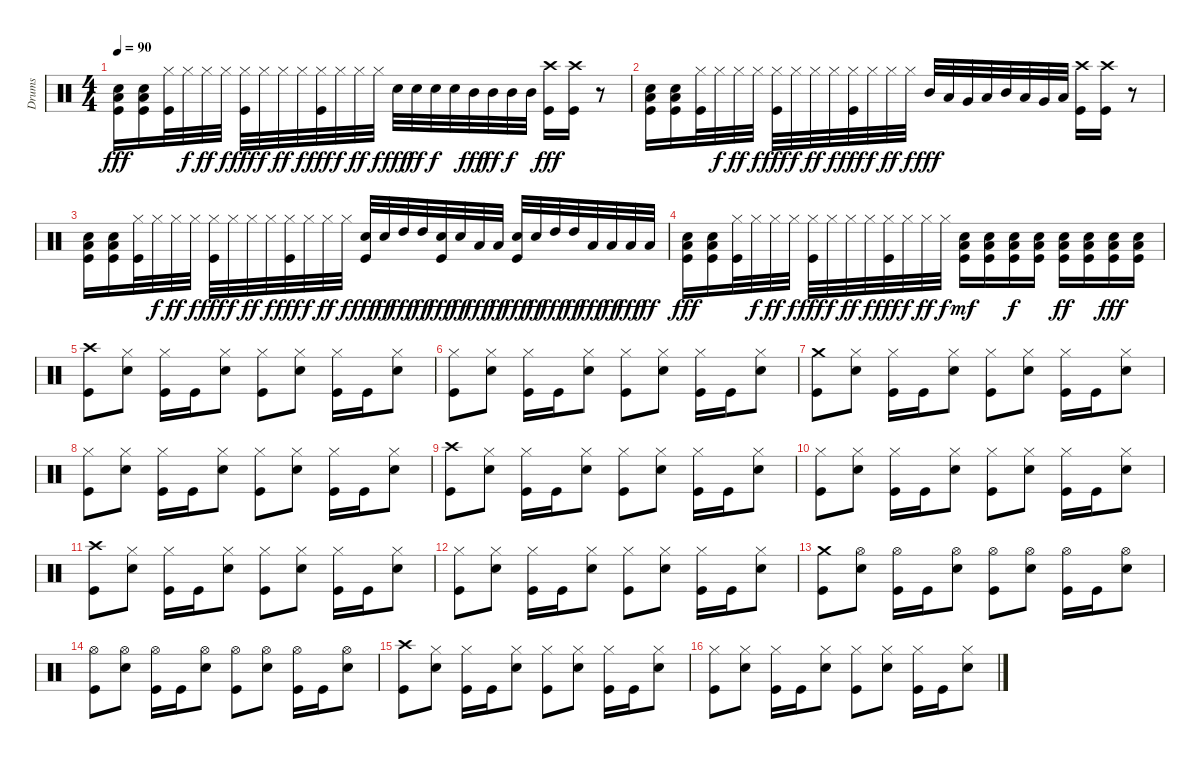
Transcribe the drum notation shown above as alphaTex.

\track ("Drums" "Drums") {instrument percussion}
\staff {score}
\articulation defaults
\ts (4 4)
\tempo 90
\clef neutral
\ks c
("Low Floor Tom (hit)" "Snare (hit) 2" "Kick (hit)").16{dy fff} ("Low Floor Tom (hit)" "Snare (hit) 2" "Kick (hit)").16 ("Hi-Hat (closed)" "Kick (hit)").32 "Hi-Hat (closed)".32{dy f} "Hi-Hat (closed)".32{dy ff} "Hi-Hat (closed)".32{dy f} ("Hi-Hat (closed)" "Kick (hit)").32{dy fff} "Hi-Hat (closed)".32{dy f} "Hi-Hat (closed)".32{dy ff} "Hi-Hat (closed)".32{dy f} ("Hi-Hat (closed)" "Kick (hit)").32{dy fff} "Hi-Hat (closed)".32{dy f} "Hi-Hat (closed)".32{dy ff} "Hi-Hat (closed)".32{dy f} "Snare (hit) 2".32{dy fff} "Snare (hit) 2".32{dy ff} "Snare (hit) 2".32{dy f} "Snare (hit) 2".32 "Mid Tom (hit)".32{dy fff} "Mid Tom (hit)".32{dy ff} "Mid Tom (hit)".32{dy f} "Mid Tom (hit)".32 ("Crash high (hit)" "Kick (hit)").16{dy fff} ("Crash high (hit)" "Kick (hit)").16 r.8 |
("Low Floor Tom (hit)" "Snare (hit) 2" "Kick (hit)").16 ("Low Floor Tom (hit)" "Snare (hit) 2" "Kick (hit)").16 ("Hi-Hat (closed)" "Kick (hit)").32 "Hi-Hat (closed)".32{dy f} "Hi-Hat (closed)".32{dy ff} "Hi-Hat (closed)".32{dy f} ("Hi-Hat (closed)" "Kick (hit)").32{dy fff} "Hi-Hat (closed)".32{dy f} "Hi-Hat (closed)".32{dy ff} "Hi-Hat (closed)".32{dy f} ("Hi-Hat (closed)" "Kick (hit)").32{dy fff} "Hi-Hat (closed)".32{dy f} "Hi-Hat (closed)".32{dy ff} "Hi-Hat (closed)".32{dy f} "Mid Tom (hit)".32{dy fff} "Low Tom (hit)".32 "Very Low Tom (hit)".32 "Low Floor Tom (hit)".32 "Mid Tom (hit)".32 "Low Tom (hit)".32 "Very Low Tom (hit)".32 "Low Floor Tom (hit)".32 ("Crash high (hit)" "Kick (hit)").16 ("Crash high (hit)" "Kick (hit)").16 r.8 |
("Low Floor Tom (hit)" "Snare (hit) 2" "Kick (hit)").16 ("Low Floor Tom (hit)" "Snare (hit) 2" "Kick (hit)").16 ("Hi-Hat (closed)" "Kick (hit)").32 "Hi-Hat (closed)".32{dy f} "Hi-Hat (closed)".32{dy ff} "Hi-Hat (closed)".32{dy f} ("Hi-Hat (closed)" "Kick (hit)").32{dy fff} "Hi-Hat (closed)".32{dy f} "Hi-Hat (closed)".32{dy ff} "Hi-Hat (closed)".32{dy f} ("Hi-Hat (closed)" "Kick (hit)").32{dy fff} "Hi-Hat (closed)".32{dy f} "Hi-Hat (closed)".32{dy ff} "Hi-Hat (closed)".32{dy f} ("Snare (hit) 2" "Kick (hit)").32{dy fff} "Snare (hit) 2".32{dy ff} "High Tom (hit)".32{dy fff} "High Tom (hit)".32{dy ff} ("Snare (hit) 2" "Kick (hit)").32{dy fff} "Snare (hit) 2".32{dy ff} "Low Tom (hit)".32{dy fff} "Low Tom (hit)".32{dy ff} ("Snare (hit) 2" "Kick (hit)").32{dy fff} "Snare (hit) 2".32{dy ff} "High Tom (hit)".32{dy fff} "High Tom (hit)".32{dy ff} "Low Tom (hit)".32{dy fff} "Low Tom (hit)".32{dy ff} "Low Floor Tom (hit)".32{dy fff} "Low Floor Tom (hit)".32{dy ff} |
("Low Floor Tom (hit)" "Snare (hit) 2" "Kick (hit)").16{dy fff} ("Low Floor Tom (hit)" "Snare (hit) 2" "Kick (hit)").16 ("Hi-Hat (closed)" "Kick (hit)").32 "Hi-Hat (closed)".32{dy f} "Hi-Hat (closed)".32{dy ff} "Hi-Hat (closed)".32{dy f} ("Hi-Hat (closed)" "Kick (hit)").32{dy fff} "Hi-Hat (closed)".32{dy f} "Hi-Hat (closed)".32{dy ff} "Hi-Hat (closed)".32{dy f} ("Hi-Hat (closed)" "Kick (hit)").32{dy fff} "Hi-Hat (closed)".32{dy f} "Hi-Hat (closed)".32{dy ff} "Hi-Hat (closed)".32{dy f} ("Low Tom (hit)" "Snare (hit) 2" "Kick (hit)").16{dy mf} ("Low Tom (hit)" "Snare (hit) 2" "Kick (hit)").16 ("Low Tom (hit)" "Snare (hit) 2" "Kick (hit)").16{dy f} ("Low Tom (hit)" "Snare (hit) 2" "Kick (hit)").16 ("Low Tom (hit)" "Snare (hit) 2" "Kick (hit)").16{dy ff} ("Low Tom (hit)" "Snare (hit) 2" "Kick (hit)").16 ("Low Tom (hit)" "Snare (hit) 2" "Kick (hit)").16{dy fff} ("Low Tom (hit)" "Snare (hit) 2" "Kick (hit)").16 |
("Crash high (hit)" "Kick (hit)").8 ("Hi-Hat (closed)" "Snare (hit) 2").8 ("Hi-Hat (closed)" "Kick (hit)").16 "Kick (hit)".16 ("Hi-Hat (closed)" "Snare (hit) 2").8 ("Hi-Hat (closed)" "Kick (hit)").8 ("Hi-Hat (closed)" "Snare (hit) 2").8 ("Hi-Hat (closed)" "Kick (hit)").16 "Kick (hit)".16 ("Hi-Hat (closed)" "Snare (hit) 2").8 |
("Hi-Hat (closed)" "Kick (hit)").8 ("Hi-Hat (closed)" "Snare (hit) 2").8 ("Hi-Hat (closed)" "Kick (hit)").16 "Kick (hit)".16 ("Hi-Hat (closed)" "Snare (hit) 2").8 ("Hi-Hat (closed)" "Kick (hit)").8 ("Hi-Hat (closed)" "Snare (hit) 2").8 ("Hi-Hat (closed)" "Kick (hit)").16 "Kick (hit)".16 ("Hi-Hat (closed)" "Snare (hit) 2").8 |
("Crash medium (hit)" "Kick (hit)").8 ("Hi-Hat (closed)" "Snare (hit) 2").8 ("Hi-Hat (closed)" "Kick (hit)").16 "Kick (hit)".16 ("Hi-Hat (closed)" "Snare (hit) 2").8 ("Hi-Hat (closed)" "Kick (hit)").8 ("Hi-Hat (closed)" "Snare (hit) 2").8 ("Hi-Hat (closed)" "Kick (hit)").16 "Kick (hit)".16 ("Hi-Hat (closed)" "Snare (hit) 2").8 |
("Hi-Hat (closed)" "Kick (hit)").8 ("Hi-Hat (closed)" "Snare (hit) 2").8 ("Hi-Hat (closed)" "Kick (hit)").16 "Kick (hit)".16 ("Hi-Hat (closed)" "Snare (hit) 2").8 ("Hi-Hat (closed)" "Kick (hit)").8 ("Hi-Hat (closed)" "Snare (hit) 2").8 ("Hi-Hat (closed)" "Kick (hit)").16 "Kick (hit)".16 ("Hi-Hat (closed)" "Snare (hit) 2").8 |
("Crash high (hit)" "Kick (hit)").8 ("Hi-Hat (closed)" "Snare (hit) 2").8 ("Hi-Hat (closed)" "Kick (hit)").16 "Kick (hit)".16 ("Hi-Hat (closed)" "Snare (hit) 2").8 ("Hi-Hat (closed)" "Kick (hit)").8 ("Hi-Hat (closed)" "Snare (hit) 2").8 ("Hi-Hat (closed)" "Kick (hit)").16 "Kick (hit)".16 ("Hi-Hat (closed)" "Snare (hit) 2").8 |
("Hi-Hat (closed)" "Kick (hit)").8 ("Hi-Hat (closed)" "Snare (hit) 2").8 ("Hi-Hat (closed)" "Kick (hit)").16 "Kick (hit)".16 ("Hi-Hat (closed)" "Snare (hit) 2").8 ("Hi-Hat (closed)" "Kick (hit)").8 ("Hi-Hat (closed)" "Snare (hit) 2").8 ("Hi-Hat (closed)" "Kick (hit)").16 "Kick (hit)".16 ("Hi-Hat (closed)" "Snare (hit) 2").8 |
("Crash high (hit)" "Kick (hit)").8 ("Hi-Hat (closed)" "Snare (hit) 2").8 ("Hi-Hat (closed)" "Kick (hit)").16 "Kick (hit)".16 ("Hi-Hat (closed)" "Snare (hit) 2").8 ("Hi-Hat (closed)" "Kick (hit)").8 ("Hi-Hat (closed)" "Snare (hit) 2").8 ("Hi-Hat (closed)" "Kick (hit)").16 "Kick (hit)".16 ("Hi-Hat (closed)" "Snare (hit) 2").8 |
("Hi-Hat (closed)" "Kick (hit)").8 ("Hi-Hat (closed)" "Snare (hit) 2").8 ("Hi-Hat (closed)" "Kick (hit)").16 "Kick (hit)".16 ("Hi-Hat (closed)" "Snare (hit) 2").8 ("Hi-Hat (closed)" "Kick (hit)").8 ("Hi-Hat (closed)" "Snare (hit) 2").8 ("Hi-Hat (closed)" "Kick (hit)").16 "Kick (hit)".16 ("Hi-Hat (closed)" "Snare (hit) 2").8 |
("Crash medium (hit)" "Kick (hit)").8 ("Hi-Hat (open)" "Snare (hit) 2").8 ("Hi-Hat (open)" "Kick (hit)").16 "Kick (hit)".16 ("Hi-Hat (open)" "Snare (hit) 2").8 ("Hi-Hat (open)" "Kick (hit)").8 ("Hi-Hat (open)" "Snare (hit) 2").8 ("Hi-Hat (open)" "Kick (hit)").16 "Kick (hit)".16 ("Hi-Hat (open)" "Snare (hit) 2").8 |
("Hi-Hat (open)" "Kick (hit)").8 ("Hi-Hat (open)" "Snare (hit) 2").8 ("Hi-Hat (open)" "Kick (hit)").16 "Kick (hit)".16 ("Hi-Hat (open)" "Snare (hit) 2").8 ("Hi-Hat (open)" "Kick (hit)").8 ("Hi-Hat (open)" "Snare (hit) 2").8 ("Hi-Hat (open)" "Kick (hit)").16 "Kick (hit)".16 ("Hi-Hat (open)" "Snare (hit) 2").8 |
("Crash high (hit)" "Kick (hit)").8 ("Hi-Hat (closed)" "Snare (hit) 2").8 ("Hi-Hat (closed)" "Kick (hit)").16 "Kick (hit)".16 ("Hi-Hat (closed)" "Snare (hit) 2").8 ("Hi-Hat (closed)" "Kick (hit)").8 ("Hi-Hat (closed)" "Snare (hit) 2").8 ("Hi-Hat (closed)" "Kick (hit)").16 "Kick (hit)".16 ("Hi-Hat (closed)" "Snare (hit) 2").8 |
("Hi-Hat (closed)" "Kick (hit)").8 ("Hi-Hat (closed)" "Snare (hit) 2").8 ("Hi-Hat (closed)" "Kick (hit)").16 "Kick (hit)".16 ("Hi-Hat (closed)" "Snare (hit) 2").8 ("Hi-Hat (closed)" "Kick (hit)").8 ("Hi-Hat (closed)" "Snare (hit) 2").8 ("Hi-Hat (closed)" "Kick (hit)").16 "Kick (hit)".16 ("Hi-Hat (closed)" "Snare (hit) 2").8
